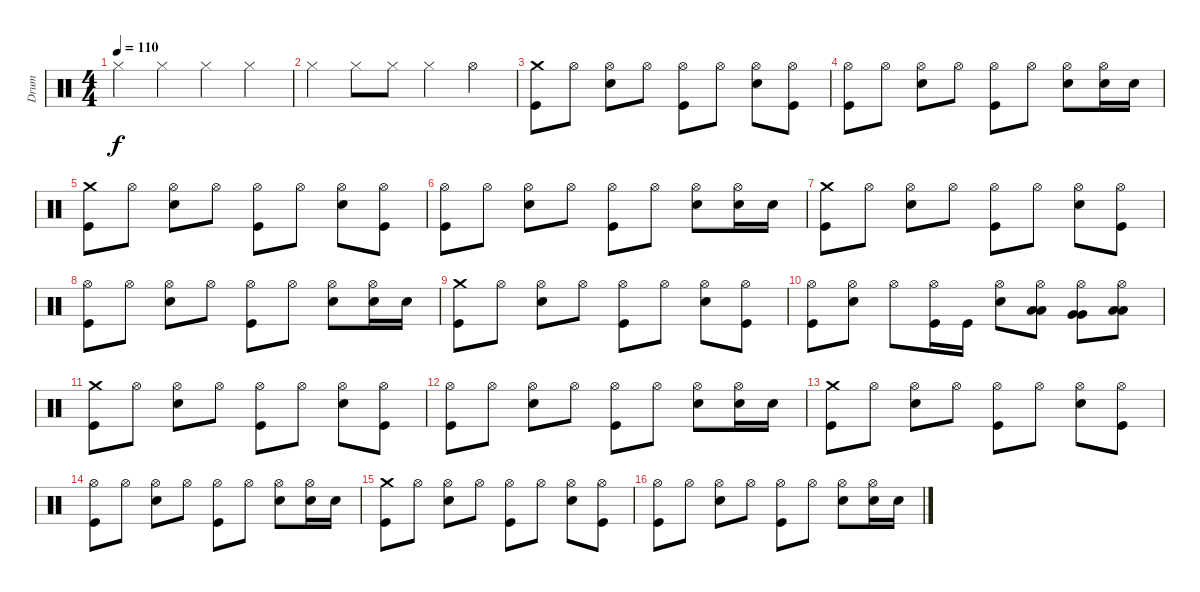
\track ("Drum" "Drum") {instrument percussion}
\staff {score}
\articulation defaults
\ts (4 4)
\tempo 110
\clef neutral
\ks c "Hi-Hat (closed)".4{dy f} "Hi-Hat (closed)".4 "Hi-Hat (closed)".4 "Hi-Hat (closed)".4
|
"Hi-Hat (closed)".4 "Hi-Hat (closed)".8 "Hi-Hat (closed)".8 "Hi-Hat (closed)".4 "Hi-Hat (open)".4 |
("Crash medium (hit)" "Kick (hit)").8 "Hi-Hat (open)".8 ("Hi-Hat (open)" "Snare (hit) 2").8 "Hi-Hat (open)".8 ("Hi-Hat (open)" "Kick (hit)").8 "Hi-Hat (open)".8 ("Hi-Hat (open)" "Snare (hit) 2").8 ("Hi-Hat (open)" "Kick (hit)").8 |
("Hi-Hat (open)" "Kick (hit)").8 "Hi-Hat (open)".8 ("Hi-Hat (open)" "Snare (hit) 2").8 "Hi-Hat (open)".8 ("Hi-Hat (open)" "Kick (hit)").8 "Hi-Hat (open)".8 ("Hi-Hat (open)" "Snare (hit) 2").8 ("Hi-Hat (open)" "Snare (hit) 2").16 "Snare (hit) 2".16 |
("Crash medium (hit)" "Kick (hit)").8 "Hi-Hat (open)".8 ("Hi-Hat (open)" "Snare (hit) 2").8 "Hi-Hat (open)".8 ("Hi-Hat (open)" "Kick (hit)").8 "Hi-Hat (open)".8 ("Hi-Hat (open)" "Snare (hit) 2").8 ("Hi-Hat (open)" "Kick (hit)").8 |
("Hi-Hat (open)" "Kick (hit)").8 "Hi-Hat (open)".8 ("Hi-Hat (open)" "Snare (hit) 2").8 "Hi-Hat (open)".8 ("Hi-Hat (open)" "Kick (hit)").8 "Hi-Hat (open)".8 ("Hi-Hat (open)" "Snare (hit) 2").8 ("Hi-Hat (open)" "Snare (hit) 2").16 "Snare (hit) 2".16 |
("Crash medium (hit)" "Kick (hit)").8 "Hi-Hat (open)".8 ("Hi-Hat (open)" "Snare (hit) 2").8 "Hi-Hat (open)".8 ("Hi-Hat (open)" "Kick (hit)").8 "Hi-Hat (open)".8 ("Hi-Hat (open)" "Snare (hit) 2").8 ("Hi-Hat (open)" "Kick (hit)").8 |
("Hi-Hat (open)" "Kick (hit)").8 "Hi-Hat (open)".8 ("Hi-Hat (open)" "Snare (hit) 2").8 "Hi-Hat (open)".8 ("Hi-Hat (open)" "Kick (hit)").8 "Hi-Hat (open)".8 ("Hi-Hat (open)" "Snare (hit) 2").8 ("Hi-Hat (open)" "Snare (hit) 2").16 "Snare (hit) 2".16 |
("Crash medium (hit)" "Kick (hit)").8 "Hi-Hat (open)".8 ("Hi-Hat (open)" "Snare (hit) 2").8 "Hi-Hat (open)".8 ("Hi-Hat (open)" "Kick (hit)").8 "Hi-Hat (open)".8 ("Hi-Hat (open)" "Snare (hit) 2").8 ("Hi-Hat (open)" "Kick (hit)").8 |
("Hi-Hat (open)" "Kick (hit)").8 ("Hi-Hat (open)" "Snare (hit) 2").8 "Hi-Hat (open)".8 ("Hi-Hat (open)" "Kick (hit)").16 "Kick (hit)".16 ("Hi-Hat (open)" "Snare (hit) 2").8 ("Hi-Hat (open)" "Low Tom (hit)" "Low Tom (hit)").8 ("Hi-Hat (open)" "Very Low Tom (hit)" "Very Low Tom (hit)").8 ("Hi-Hat (open)" "Low Floor Tom (hit)" "Low Floor Tom (hit)").8 |
("Crash medium (hit)" "Kick (hit)").8 "Hi-Hat (open)".8 ("Hi-Hat (open)" "Snare (hit) 2").8 "Hi-Hat (open)".8 ("Hi-Hat (open)" "Kick (hit)").8 "Hi-Hat (open)".8 ("Hi-Hat (open)" "Snare (hit) 2").8 ("Hi-Hat (open)" "Kick (hit)").8 |
("Hi-Hat (open)" "Kick (hit)").8 "Hi-Hat (open)".8 ("Hi-Hat (open)" "Snare (hit) 2").8 "Hi-Hat (open)".8 ("Hi-Hat (open)" "Kick (hit)").8 "Hi-Hat (open)".8 ("Hi-Hat (open)" "Snare (hit) 2").8 ("Hi-Hat (open)" "Snare (hit) 2").16 "Snare (hit) 2".16 |
("Crash medium (hit)" "Kick (hit)").8 "Hi-Hat (open)".8 ("Hi-Hat (open)" "Snare (hit) 2").8 "Hi-Hat (open)".8 ("Hi-Hat (open)" "Kick (hit)").8 "Hi-Hat (open)".8 ("Hi-Hat (open)" "Snare (hit) 2").8 ("Hi-Hat (open)" "Kick (hit)").8 |
("Hi-Hat (open)" "Kick (hit)").8 "Hi-Hat (open)".8 ("Hi-Hat (open)" "Snare (hit) 2").8 "Hi-Hat (open)".8 ("Hi-Hat (open)" "Kick (hit)").8 "Hi-Hat (open)".8 ("Hi-Hat (open)" "Snare (hit) 2").8 ("Hi-Hat (open)" "Snare (hit) 2").16 "Snare (hit) 2".16 |
("Crash medium (hit)" "Kick (hit)").8 "Hi-Hat (open)".8 ("Hi-Hat (open)" "Snare (hit) 2").8 "Hi-Hat (open)".8 ("Hi-Hat (open)" "Kick (hit)").8 "Hi-Hat (open)".8 ("Hi-Hat (open)" "Snare (hit) 2").8 ("Hi-Hat (open)" "Kick (hit)").8 |
("Hi-Hat (open)" "Kick (hit)").8 "Hi-Hat (open)".8 ("Hi-Hat (open)" "Snare (hit) 2").8 "Hi-Hat (open)".8 ("Hi-Hat (open)" "Kick (hit)").8 "Hi-Hat (open)".8 ("Hi-Hat (open)" "Snare (hit) 2").8 ("Hi-Hat (open)" "Snare (hit) 2").16 "Snare (hit) 2".16
